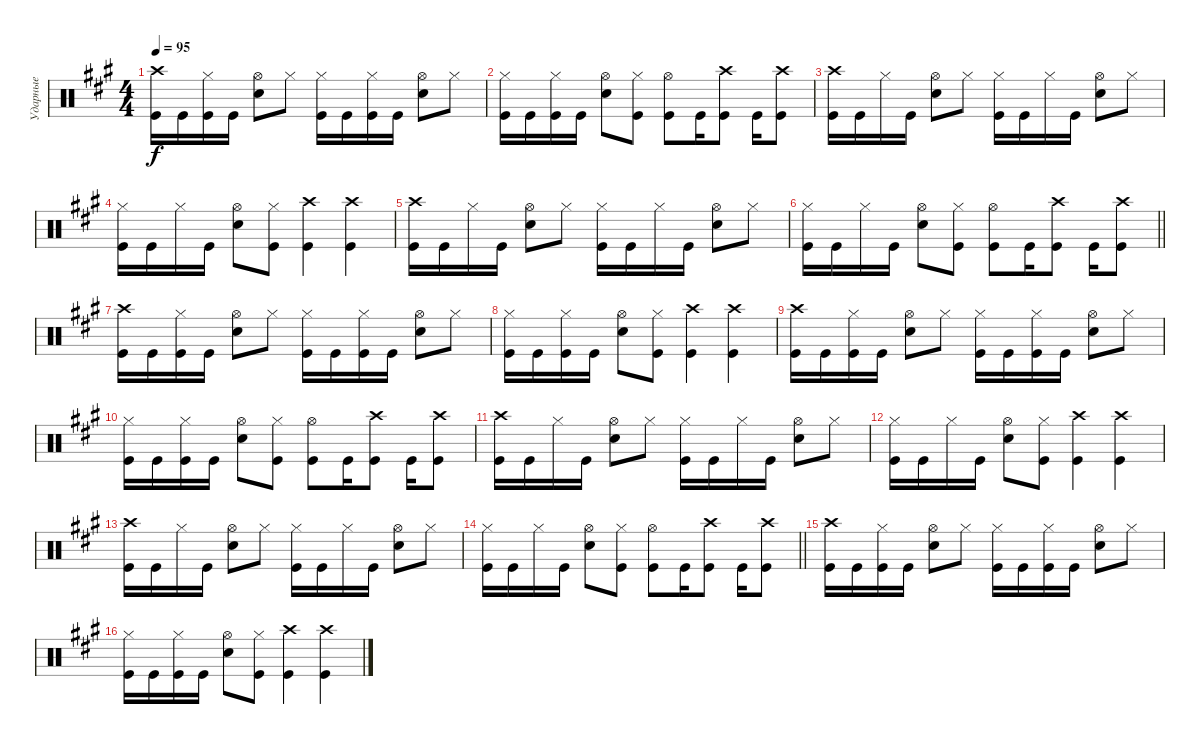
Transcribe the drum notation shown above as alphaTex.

\track ("Ударные" "Ударные") {instrument percussion}
\staff {score}
\articulation defaults
\ts (4 4)
\tempo 95
\clef neutral
\ks a
("Crash high (hit)" "Kick (hit)").16{dy f} "Kick (hit)".16 ("Hi-Hat (closed)" "Kick (hit)").16 "Kick (hit)".16 ("Hi-Hat (open)" "Snare (hit) 2").8 "Hi-Hat (closed)".8 ("Hi-Hat (closed)" "Kick (hit)").16 "Kick (hit)".16 ("Hi-Hat (closed)" "Kick (hit)").16 "Kick (hit)".16 ("Hi-Hat (open)" "Snare (hit) 2").8 "Hi-Hat (closed)".8 |
("Hi-Hat (closed)" "Kick (hit)").16 "Kick (hit)".16 ("Hi-Hat (closed)" "Kick (hit)").16 "Kick (hit)".16 ("Hi-Hat (open)" "Snare (hit) 2").8 ("Hi-Hat (closed)" "Kick (hit)").8 ("Hi-Hat (open)" "Kick (hit)").8 "Kick (hit)".16 ("Crash high (hit)" "Kick (hit)").8 "Kick (hit)".16 ("Crash high (hit)" "Kick (hit)").8 |
("Crash high (hit)" "Kick (hit)").16 "Kick (hit)".16 "Hi-Hat (closed)".16 "Kick (hit)".16 ("Hi-Hat (open)" "Snare (hit) 2").8 "Hi-Hat (closed)".8 ("Hi-Hat (closed)" "Kick (hit)").16 "Kick (hit)".16 "Hi-Hat (closed)".16 "Kick (hit)".16 ("Hi-Hat (open)" "Snare (hit) 2").8 "Hi-Hat (closed)".8 |
("Hi-Hat (closed)" "Kick (hit)").16 "Kick (hit)".16 "Hi-Hat (closed)".16 "Kick (hit)".16 ("Hi-Hat (open)" "Snare (hit) 2").8 ("Hi-Hat (closed)" "Kick (hit)").8 ("Crash high (hit)" "Kick (hit)").4 ("Crash high (hit)" "Kick (hit)").4 |
("Crash high (hit)" "Kick (hit)").16 "Kick (hit)".16 "Hi-Hat (closed)".16 "Kick (hit)".16 ("Hi-Hat (open)" "Snare (hit) 2").8 "Hi-Hat (closed)".8 ("Hi-Hat (closed)" "Kick (hit)").16 "Kick (hit)".16 "Hi-Hat (closed)".16 "Kick (hit)".16 ("Hi-Hat (open)" "Snare (hit) 2").8 "Hi-Hat (closed)".8 |
\barLineRight lightlight
("Hi-Hat (closed)" "Kick (hit)").16 "Kick (hit)".16 "Hi-Hat (closed)".16 "Kick (hit)".16 ("Hi-Hat (open)" "Snare (hit) 2").8 ("Hi-Hat (closed)" "Kick (hit)").8 ("Hi-Hat (open)" "Kick (hit)").8 "Kick (hit)".16 ("Crash high (hit)" "Kick (hit)").8 "Kick (hit)".16 ("Crash high (hit)" "Kick (hit)").8 |
("Crash high (hit)" "Kick (hit)").16 "Kick (hit)".16 ("Hi-Hat (closed)" "Kick (hit)").16 "Kick (hit)".16 ("Hi-Hat (open)" "Snare (hit) 2").8 "Hi-Hat (closed)".8 ("Hi-Hat (closed)" "Kick (hit)").16 "Kick (hit)".16 ("Hi-Hat (closed)" "Kick (hit)").16 "Kick (hit)".16 ("Hi-Hat (open)" "Snare (hit) 2").8 "Hi-Hat (closed)".8 |
("Hi-Hat (closed)" "Kick (hit)").16 "Kick (hit)".16 ("Hi-Hat (closed)" "Kick (hit)").16 "Kick (hit)".16 ("Hi-Hat (open)" "Snare (hit) 2").8 ("Hi-Hat (closed)" "Kick (hit)").8 ("Crash high (hit)" "Kick (hit)").4 ("Crash high (hit)" "Kick (hit)").4 |
("Crash high (hit)" "Kick (hit)").16 "Kick (hit)".16 ("Hi-Hat (closed)" "Kick (hit)").16 "Kick (hit)".16 ("Hi-Hat (open)" "Snare (hit) 2").8 "Hi-Hat (closed)".8 ("Hi-Hat (closed)" "Kick (hit)").16 "Kick (hit)".16 ("Hi-Hat (closed)" "Kick (hit)").16 "Kick (hit)".16 ("Hi-Hat (open)" "Snare (hit) 2").8 "Hi-Hat (closed)".8 |
("Hi-Hat (closed)" "Kick (hit)").16 "Kick (hit)".16 ("Hi-Hat (closed)" "Kick (hit)").16 "Kick (hit)".16 ("Hi-Hat (open)" "Snare (hit) 2").8 ("Hi-Hat (closed)" "Kick (hit)").8 ("Hi-Hat (open)" "Kick (hit)").8 "Kick (hit)".16 ("Crash high (hit)" "Kick (hit)").8 "Kick (hit)".16 ("Crash high (hit)" "Kick (hit)").8 |
("Crash high (hit)" "Kick (hit)").16 "Kick (hit)".16 "Hi-Hat (closed)".16 "Kick (hit)".16 ("Hi-Hat (open)" "Snare (hit) 2").8 "Hi-Hat (closed)".8 ("Hi-Hat (closed)" "Kick (hit)").16 "Kick (hit)".16 "Hi-Hat (closed)".16 "Kick (hit)".16 ("Hi-Hat (open)" "Snare (hit) 2").8 "Hi-Hat (closed)".8 |
("Hi-Hat (closed)" "Kick (hit)").16 "Kick (hit)".16 "Hi-Hat (closed)".16 "Kick (hit)".16 ("Hi-Hat (open)" "Snare (hit) 2").8 ("Hi-Hat (closed)" "Kick (hit)").8 ("Crash high (hit)" "Kick (hit)").4 ("Crash high (hit)" "Kick (hit)").4 |
("Crash high (hit)" "Kick (hit)").16 "Kick (hit)".16 "Hi-Hat (closed)".16 "Kick (hit)".16 ("Hi-Hat (open)" "Snare (hit) 2").8 "Hi-Hat (closed)".8 ("Hi-Hat (closed)" "Kick (hit)").16 "Kick (hit)".16 "Hi-Hat (closed)".16 "Kick (hit)".16 ("Hi-Hat (open)" "Snare (hit) 2").8 "Hi-Hat (closed)".8 |
\barLineRight lightlight
("Hi-Hat (closed)" "Kick (hit)").16 "Kick (hit)".16 "Hi-Hat (closed)".16 "Kick (hit)".16 ("Hi-Hat (open)" "Snare (hit) 2").8 ("Hi-Hat (closed)" "Kick (hit)").8 ("Hi-Hat (open)" "Kick (hit)").8 "Kick (hit)".16 ("Crash high (hit)" "Kick (hit)").8 "Kick (hit)".16 ("Crash high (hit)" "Kick (hit)").8 |
("Crash high (hit)" "Kick (hit)").16 "Kick (hit)".16 ("Hi-Hat (closed)" "Kick (hit)").16 "Kick (hit)".16 ("Hi-Hat (open)" "Snare (hit) 2").8 "Hi-Hat (closed)".8 ("Hi-Hat (closed)" "Kick (hit)").16 "Kick (hit)".16 ("Hi-Hat (closed)" "Kick (hit)").16 "Kick (hit)".16 ("Hi-Hat (open)" "Snare (hit) 2").8 "Hi-Hat (closed)".8 |
("Hi-Hat (closed)" "Kick (hit)").16 "Kick (hit)".16 ("Hi-Hat (closed)" "Kick (hit)").16 "Kick (hit)".16 ("Hi-Hat (open)" "Snare (hit) 2").8 ("Hi-Hat (closed)" "Kick (hit)").8 ("Crash high (hit)" "Kick (hit)").4 ("Crash high (hit)" "Kick (hit)").4
